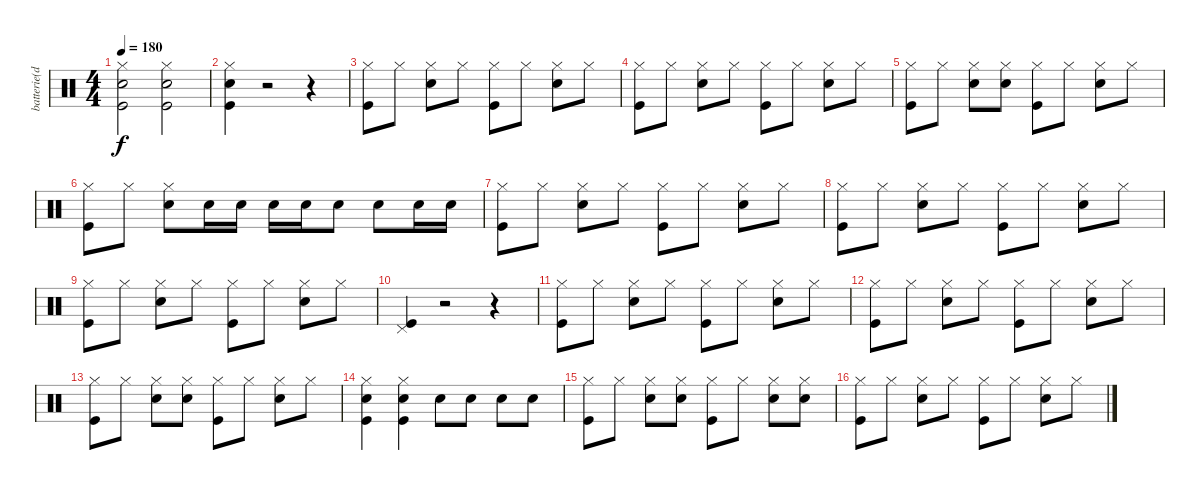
\track ("batterie(dave)" "batterie(d") {instrument percussion}
\staff {score}
\articulation defaults
\ts (4 4)
\tempo 180
\clef neutral
\ks c
("Hi-Hat (closed)" "Snare (hit) 2" "Kick (hit)").2{dy f} ("Hi-Hat (closed)" "Snare (hit) 2" "Kick (hit)").2 |
("Hi-Hat (closed)" "Snare (hit) 2" "Kick (hit)").4 r.2 r.4 |
("Hi-Hat (closed)" "Kick (hit)").8 "Hi-Hat (closed)".8 ("Hi-Hat (closed)" "Snare (hit) 2").8 "Hi-Hat (closed)".8 ("Hi-Hat (closed)" "Kick (hit)").8 "Hi-Hat (closed)".8 ("Hi-Hat (closed)" "Snare (hit) 2").8 "Hi-Hat (closed)".8 |
("Hi-Hat (closed)" "Kick (hit)").8 "Hi-Hat (closed)".8 ("Hi-Hat (closed)" "Snare (hit) 2").8 "Hi-Hat (closed)".8 ("Hi-Hat (closed)" "Kick (hit)").8 "Hi-Hat (closed)".8 ("Hi-Hat (closed)" "Snare (hit) 2").8 "Hi-Hat (closed)".8 |
("Hi-Hat (closed)" "Kick (hit)").8 "Hi-Hat (closed)".8 ("Hi-Hat (closed)" "Snare (hit) 2").8 ("Hi-Hat (closed)" "Snare (hit) 2").8 ("Hi-Hat (closed)" "Kick (hit)").8 "Hi-Hat (closed)".8 ("Hi-Hat (closed)" "Snare (hit) 2").8 "Hi-Hat (closed)".8 |
("Hi-Hat (closed)" "Kick (hit)").8 "Hi-Hat (closed)".8 ("Hi-Hat (closed)" "Snare (hit) 2").8 "Snare (hit) 2".16 "Snare (hit) 2".16 "Snare (hit) 2".16 "Snare (hit) 2".16 "Snare (hit) 2".8 "Snare (hit) 2".8 "Snare (hit) 2".16 "Snare (hit) 2".16 |
("Hi-Hat (closed)" "Kick (hit)").8 "Hi-Hat (closed)".8 ("Hi-Hat (closed)" "Snare (hit) 2").8 "Hi-Hat (closed)".8 ("Hi-Hat (closed)" "Kick (hit)").8 "Hi-Hat (closed)".8 ("Hi-Hat (closed)" "Snare (hit) 2").8 "Hi-Hat (closed)".8 |
("Hi-Hat (closed)" "Kick (hit)").8 "Hi-Hat (closed)".8 ("Hi-Hat (closed)" "Snare (hit) 2").8 "Hi-Hat (closed)".8 ("Hi-Hat (closed)" "Kick (hit)").8 "Hi-Hat (closed)".8 ("Hi-Hat (closed)" "Snare (hit) 2").8 "Hi-Hat (closed)".8 |
("Hi-Hat (closed)" "Kick (hit)").8 "Hi-Hat (closed)".8 ("Hi-Hat (closed)" "Snare (hit) 2").8 "Hi-Hat (closed)".8 ("Hi-Hat (closed)" "Kick (hit)").8 "Hi-Hat (closed)".8 ("Hi-Hat (closed)" "Snare (hit) 2").8 "Hi-Hat (closed)".8 |
("Pedal Hi-Hat (hit)" "Kick (hit)").4 r.2 r.4 |
("Hi-Hat (closed)" "Kick (hit)").8 "Hi-Hat (closed)".8 ("Hi-Hat (closed)" "Snare (hit) 2").8 "Hi-Hat (closed)".8 ("Hi-Hat (closed)" "Kick (hit)").8 "Hi-Hat (closed)".8 ("Hi-Hat (closed)" "Snare (hit) 2").8 "Hi-Hat (closed)".8 |
("Hi-Hat (closed)" "Kick (hit)").8 "Hi-Hat (closed)".8 ("Hi-Hat (closed)" "Snare (hit) 2").8 "Hi-Hat (closed)".8 ("Hi-Hat (closed)" "Kick (hit)").8 "Hi-Hat (closed)".8 ("Hi-Hat (closed)" "Snare (hit) 2").8 "Hi-Hat (closed)".8 |
("Hi-Hat (closed)" "Kick (hit)").8 "Hi-Hat (closed)".8 ("Hi-Hat (closed)" "Snare (hit) 2").8 ("Hi-Hat (closed)" "Snare (hit) 2").8 ("Hi-Hat (closed)" "Kick (hit)").8 "Hi-Hat (closed)".8 ("Hi-Hat (closed)" "Snare (hit) 2").8 "Hi-Hat (closed)".8 |
("Hi-Hat (closed)" "Snare (hit) 2" "Kick (hit)").4 ("Hi-Hat (closed)" "Snare (hit) 2" "Kick (hit)").4 "Snare (hit) 2".8 "Snare (hit) 2".8 "Snare (hit) 2".8 "Snare (hit) 2".8 |
("Hi-Hat (closed)" "Kick (hit)").8 "Hi-Hat (closed)".8 ("Hi-Hat (closed)" "Snare (hit) 2").8 ("Hi-Hat (closed)" "Snare (hit) 2").8 ("Hi-Hat (closed)" "Kick (hit)").8 "Hi-Hat (closed)".8 ("Hi-Hat (closed)" "Snare (hit) 2").8 ("Hi-Hat (closed)" "Snare (hit) 2").8 |
("Hi-Hat (closed)" "Kick (hit)").8 "Hi-Hat (closed)".8 ("Hi-Hat (closed)" "Snare (hit) 2").8 "Hi-Hat (closed)".8 ("Hi-Hat (closed)" "Kick (hit)").8 "Hi-Hat (closed)".8 ("Hi-Hat (closed)" "Snare (hit) 2").8 "Hi-Hat (closed)".8
